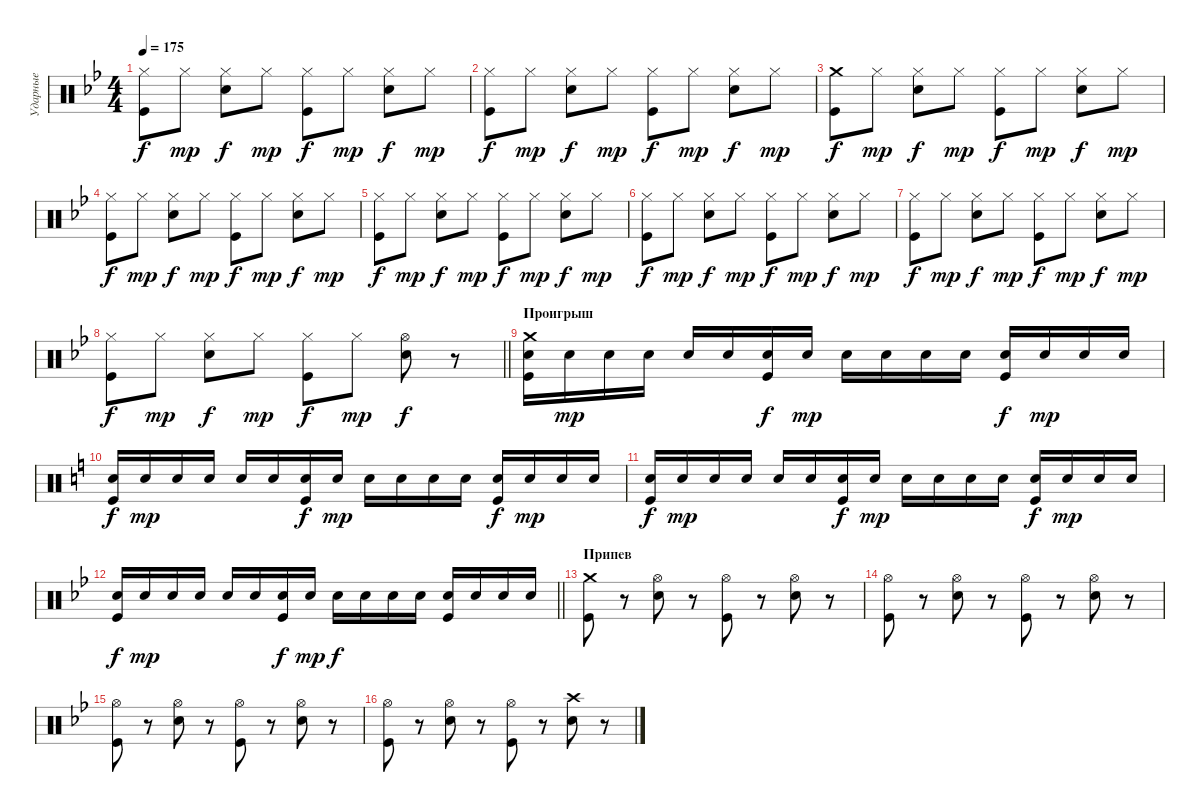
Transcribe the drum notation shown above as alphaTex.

\track ("Ударные" "Ударные") {instrument percussion}
\staff {score}
\articulation defaults
\ts (4 4)
\section ("" " ")
\tempo 175
\clef neutral
\ks bb
("Hi-Hat (closed)" "Kick (hit)").8{dy f} "Hi-Hat (closed)".8{dy mp} ("Hi-Hat (closed)" "Electric Snare (hit)").8{dy f} "Hi-Hat (closed)".8{dy mp} ("Hi-Hat (closed)" "Kick (hit)").8{dy f} "Hi-Hat (closed)".8{dy mp} ("Hi-Hat (closed)" "Electric Snare (hit)").8{dy f} "Hi-Hat (closed)".8{dy mp} |
("Hi-Hat (closed)" "Kick (hit)").8{dy f} "Hi-Hat (closed)".8{dy mp} ("Hi-Hat (closed)" "Electric Snare (hit)").8{dy f} "Hi-Hat (closed)".8{dy mp} ("Hi-Hat (closed)" "Kick (hit)").8{dy f} "Hi-Hat (closed)".8{dy mp} ("Hi-Hat (closed)" "Electric Snare (hit)").8{dy f} "Hi-Hat (closed)".8{dy mp} |
("Crash medium (hit)" "Kick (hit)").8{dy f} "Hi-Hat (closed)".8{dy mp} ("Hi-Hat (closed)" "Electric Snare (hit)").8{dy f} "Hi-Hat (closed)".8{dy mp} ("Hi-Hat (closed)" "Kick (hit)").8{dy f} "Hi-Hat (closed)".8{dy mp} ("Hi-Hat (closed)" "Electric Snare (hit)").8{dy f} "Hi-Hat (closed)".8{dy mp} |
("Hi-Hat (closed)" "Kick (hit)").8{dy f} "Hi-Hat (closed)".8{dy mp} ("Hi-Hat (closed)" "Electric Snare (hit)").8{dy f} "Hi-Hat (closed)".8{dy mp} ("Hi-Hat (closed)" "Kick (hit)").8{dy f} "Hi-Hat (closed)".8{dy mp} ("Hi-Hat (closed)" "Electric Snare (hit)").8{dy f} "Hi-Hat (closed)".8{dy mp} |
("Hi-Hat (closed)" "Kick (hit)").8{dy f} "Hi-Hat (closed)".8{dy mp} ("Hi-Hat (closed)" "Electric Snare (hit)").8{dy f} "Hi-Hat (closed)".8{dy mp} ("Hi-Hat (closed)" "Kick (hit)").8{dy f} "Hi-Hat (closed)".8{dy mp} ("Hi-Hat (closed)" "Electric Snare (hit)").8{dy f} "Hi-Hat (closed)".8{dy mp} |
("Hi-Hat (closed)" "Kick (hit)").8{dy f} "Hi-Hat (closed)".8{dy mp} ("Hi-Hat (closed)" "Electric Snare (hit)").8{dy f} "Hi-Hat (closed)".8{dy mp} ("Hi-Hat (closed)" "Kick (hit)").8{dy f} "Hi-Hat (closed)".8{dy mp} ("Hi-Hat (closed)" "Electric Snare (hit)").8{dy f} "Hi-Hat (closed)".8{dy mp} |
("Hi-Hat (closed)" "Kick (hit)").8{dy f} "Hi-Hat (closed)".8{dy mp} ("Hi-Hat (closed)" "Electric Snare (hit)").8{dy f} "Hi-Hat (closed)".8{dy mp} ("Hi-Hat (closed)" "Kick (hit)").8{dy f} "Hi-Hat (closed)".8{dy mp} ("Hi-Hat (closed)" "Electric Snare (hit)").8{dy f} "Hi-Hat (closed)".8{dy mp} |
\barLineRight lightlight
("Hi-Hat (closed)" "Kick (hit)").8{dy f} "Hi-Hat (closed)".8{dy mp} ("Hi-Hat (closed)" "Electric Snare (hit)").8{dy f} "Hi-Hat (closed)".8{dy mp} ("Hi-Hat (closed)" "Kick (hit)").8{dy f} "Hi-Hat (closed)".8{dy mp} ("Hi-Hat (open)" "Electric Snare (hit)").8{dy f} r.8 |
\section ("" "Проигрыш")
("Crash medium (hit)" "Electric Snare (hit)" "Kick (hit)").16 "Electric Snare (hit)".16{dy mp} "Electric Snare (hit)".16 "Electric Snare (hit)".16 "Electric Snare (hit)".16 "Electric Snare (hit)".16 ("Electric Snare (hit)" "Kick (hit)").16{dy f} "Electric Snare (hit)".16{dy mp} "Electric Snare (hit)".16 "Electric Snare (hit)".16 "Electric Snare (hit)".16 "Electric Snare (hit)".16 ("Electric Snare (hit)" "Kick (hit)").16{dy f} "Electric Snare (hit)".16{dy mp} "Electric Snare (hit)".16 "Electric Snare (hit)".16 |
\ks c
("Electric Snare (hit)" "Kick (hit)").16{dy f} "Electric Snare (hit)".16{dy mp} "Electric Snare (hit)".16 "Electric Snare (hit)".16 "Electric Snare (hit)".16 "Electric Snare (hit)".16 ("Electric Snare (hit)" "Kick (hit)").16{dy f} "Electric Snare (hit)".16{dy mp} "Electric Snare (hit)".16 "Electric Snare (hit)".16 "Electric Snare (hit)".16 "Electric Snare (hit)".16 ("Electric Snare (hit)" "Kick (hit)").16{dy f} "Electric Snare (hit)".16{dy mp} "Electric Snare (hit)".16 "Electric Snare (hit)".16 |
("Electric Snare (hit)" "Kick (hit)").16{dy f} "Electric Snare (hit)".16{dy mp} "Electric Snare (hit)".16 "Electric Snare (hit)".16 "Electric Snare (hit)".16 "Electric Snare (hit)".16 ("Electric Snare (hit)" "Kick (hit)").16{dy f} "Electric Snare (hit)".16{dy mp} "Electric Snare (hit)".16 "Electric Snare (hit)".16 "Electric Snare (hit)".16 "Electric Snare (hit)".16 ("Electric Snare (hit)" "Kick (hit)").16{dy f} "Electric Snare (hit)".16{dy mp} "Electric Snare (hit)".16 "Electric Snare (hit)".16 |
\barLineRight lightlight
\ks bb
("Electric Snare (hit)" "Kick (hit)").16{dy f} "Electric Snare (hit)".16{dy mp} "Electric Snare (hit)".16 "Electric Snare (hit)".16 "Electric Snare (hit)".16 "Electric Snare (hit)".16 ("Electric Snare (hit)" "Kick (hit)").16{dy f} "Electric Snare (hit)".16{dy mp} "Electric Snare (hit)".16{dy f} "Electric Snare (hit)".16 "Electric Snare (hit)".16 "Electric Snare (hit)".16 ("Electric Snare (hit)" "Kick (hit)").16 "Electric Snare (hit)".16 "Electric Snare (hit)".16 "Electric Snare (hit)".16 |
\section ("" "Припев")
("Crash medium (hit)" "Kick (hit)").8 r.8 ("Hi-Hat (open)" "Electric Snare (hit)").8 r.8 ("Hi-Hat (open)" "Kick (hit)").8 r.8 ("Hi-Hat (open)" "Electric Snare (hit)").8 r.8 |
("Hi-Hat (open)" "Kick (hit)").8 r.8 ("Hi-Hat (open)" "Electric Snare (hit)").8 r.8 ("Hi-Hat (open)" "Kick (hit)").8 r.8 ("Hi-Hat (open)" "Electric Snare (hit)").8 r.8 |
("Hi-Hat (open)" "Kick (hit)").8 r.8 ("Hi-Hat (open)" "Electric Snare (hit)").8 r.8 ("Hi-Hat (open)" "Kick (hit)").8 r.8 ("Hi-Hat (open)" "Electric Snare (hit)").8 r.8 |
("Hi-Hat (open)" "Kick (hit)").8 r.8 ("Hi-Hat (open)" "Electric Snare (hit)").8 r.8 ("Hi-Hat (open)" "Kick (hit)").8 r.8 ("Crash high (hit)" "Electric Snare (hit)").8 r.8
